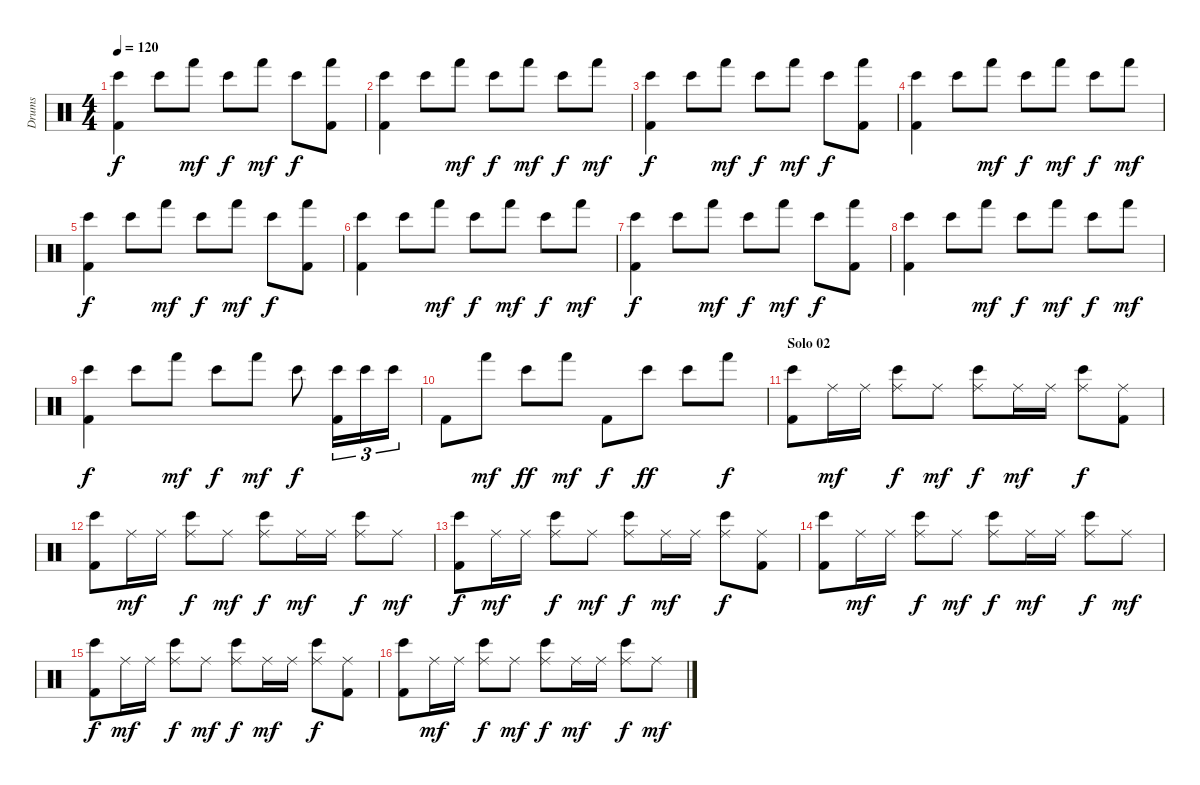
\track ("Drums" "Drums") {instrument percussion}
\staff {score}
\articulation defaults
\ts (4 4)
\tempo 120
\clef neutral
\ks c
("Kick (hit) 2" "Bongo High (hit)").4{dy f} "Bongo High (hit)".8 "Hand (hit)".8{dy mf} "Bongo High (hit)".8{dy f} "Hand (hit)".8{dy mf} "Bongo High (hit)".8{dy f} ("Kick (hit) 2" "Hand (hit)").8 |
("Kick (hit) 2" "Bongo High (hit)").4 "Bongo High (hit)".8 "Hand (hit)".8{dy mf} "Bongo High (hit)".8{dy f} "Hand (hit)".8{dy mf} "Bongo High (hit)".8{dy f} "Hand (hit)".8{dy mf} |
("Kick (hit) 2" "Bongo High (hit)").4{dy f} "Bongo High (hit)".8 "Hand (hit)".8{dy mf} "Bongo High (hit)".8{dy f} "Hand (hit)".8{dy mf} "Bongo High (hit)".8{dy f} ("Kick (hit) 2" "Hand (hit)").8 |
("Kick (hit) 2" "Bongo High (hit)").4 "Bongo High (hit)".8 "Hand (hit)".8{dy mf} "Bongo High (hit)".8{dy f} "Hand (hit)".8{dy mf} "Bongo High (hit)".8{dy f} "Hand (hit)".8{dy mf} |
("Kick (hit) 2" "Bongo High (hit)").4{dy f} "Bongo High (hit)".8 "Hand (hit)".8{dy mf} "Bongo High (hit)".8{dy f} "Hand (hit)".8{dy mf} "Bongo High (hit)".8{dy f} ("Kick (hit) 2" "Hand (hit)").8 |
("Kick (hit) 2" "Bongo High (hit)").4 "Bongo High (hit)".8 "Hand (hit)".8{dy mf} "Bongo High (hit)".8{dy f} "Hand (hit)".8{dy mf} "Bongo High (hit)".8{dy f} "Hand (hit)".8{dy mf} |
("Kick (hit) 2" "Bongo High (hit)").4{dy f} "Bongo High (hit)".8 "Hand (hit)".8{dy mf} "Bongo High (hit)".8{dy f} "Hand (hit)".8{dy mf} "Bongo High (hit)".8{dy f} ("Kick (hit) 2" "Hand (hit)").8 |
("Kick (hit) 2" "Bongo High (hit)").4 "Bongo High (hit)".8 "Hand (hit)".8{dy mf} "Bongo High (hit)".8{dy f} "Hand (hit)".8{dy mf} "Bongo High (hit)".8{dy f} "Hand (hit)".8{dy mf} |
("Kick (hit) 2" "Bongo High (hit)").4{dy f} "Bongo High (hit)".8 "Hand (hit)".8{dy mf} "Bongo High (hit)".8{dy f} "Hand (hit)".8{dy mf} "Bongo High (hit)".8{dy f} ("Kick (hit) 2" "Bongo High (hit)").16{tu (3 2)} "Bongo High (hit)".16{tu (3 2)} "Bongo High (hit)".16{tu (3 2)} |
"Kick (hit) 2".8 "Hand (hit)".8{dy mf} "Bongo High (hit)".8{dy ff} "Hand (hit)".8{dy mf} "Kick (hit) 2".8{dy f} "Bongo High (hit)".8{dy ff} "Bongo High (hit)".8 "Hand (hit)".8{dy f} |
\section ("" "Solo 02")
("Kick (hit) 2" "Bongo High (hit)").8 "Ride (middle)".16{dy mf} "Ride (middle)".16 ("Bongo High (hit)" "Ride (middle)").8{dy f} "Ride (middle)".8{dy mf} ("Bongo High (hit)" "Ride (middle)").8{dy f} "Ride (middle)".16{dy mf} "Ride (middle)".16 ("Bongo High (hit)" "Ride (middle)").8{dy f} ("Kick (hit) 2" "Ride (middle)").8 |
("Kick (hit) 2" "Bongo High (hit)").8 "Ride (middle)".16{dy mf} "Ride (middle)".16 ("Bongo High (hit)" "Ride (middle)").8{dy f} "Ride (middle)".8{dy mf} ("Bongo High (hit)" "Ride (middle)").8{dy f} "Ride (middle)".16{dy mf} "Ride (middle)".16 ("Bongo High (hit)" "Ride (middle)").8{dy f} "Ride (middle)".8{dy mf} |
("Kick (hit) 2" "Bongo High (hit)").8{dy f} "Ride (middle)".16{dy mf} "Ride (middle)".16 ("Bongo High (hit)" "Ride (middle)").8{dy f} "Ride (middle)".8{dy mf} ("Bongo High (hit)" "Ride (middle)").8{dy f} "Ride (middle)".16{dy mf} "Ride (middle)".16 ("Bongo High (hit)" "Ride (middle)").8{dy f} ("Kick (hit) 2" "Ride (middle)").8 |
("Kick (hit) 2" "Bongo High (hit)").8 "Ride (middle)".16{dy mf} "Ride (middle)".16 ("Bongo High (hit)" "Ride (middle)").8{dy f} "Ride (middle)".8{dy mf} ("Bongo High (hit)" "Ride (middle)").8{dy f} "Ride (middle)".16{dy mf} "Ride (middle)".16 ("Bongo High (hit)" "Ride (middle)").8{dy f} "Ride (middle)".8{dy mf} |
("Kick (hit) 2" "Bongo High (hit)").8{dy f} "Ride (middle)".16{dy mf} "Ride (middle)".16 ("Bongo High (hit)" "Ride (middle)").8{dy f} "Ride (middle)".8{dy mf} ("Bongo High (hit)" "Ride (middle)").8{dy f} "Ride (middle)".16{dy mf} "Ride (middle)".16 ("Bongo High (hit)" "Ride (middle)").8{dy f} ("Kick (hit) 2" "Ride (middle)").8 |
("Kick (hit) 2" "Bongo High (hit)").8 "Ride (middle)".16{dy mf} "Ride (middle)".16 ("Bongo High (hit)" "Ride (middle)").8{dy f} "Ride (middle)".8{dy mf} ("Bongo High (hit)" "Ride (middle)").8{dy f} "Ride (middle)".16{dy mf} "Ride (middle)".16 ("Bongo High (hit)" "Ride (middle)").8{dy f} "Ride (middle)".8{dy mf}
